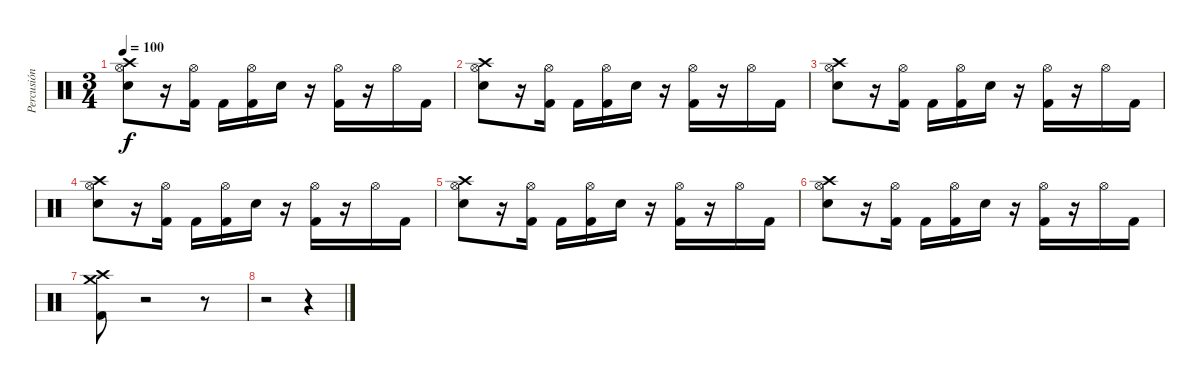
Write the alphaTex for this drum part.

\track ("Percusión" "Percusión") {instrument percussion}
\staff {score}
\articulation defaults
\ts (3 4)
\tempo 100
\clef neutral
\ks c
("Crash high (hit)" "Hi-Hat (open)" "Electric Snare (hit)").8{dy f} r.16 ("Hi-Hat (open)" "Kick (hit) 2").16 "Kick (hit) 2".16 ("Hi-Hat (open)" "Kick (hit) 2").16 "Electric Snare (hit)".16 r.16 ("Hi-Hat (open)" "Kick (hit) 2").16 r.16 "Hi-Hat (open)".16 "Kick (hit) 2".16 |
("Crash high (hit)" "Hi-Hat (open)" "Electric Snare (hit)").8 r.16 ("Hi-Hat (open)" "Kick (hit) 2").16 "Kick (hit) 2".16 ("Hi-Hat (open)" "Kick (hit) 2").16 "Electric Snare (hit)".16 r.16 ("Hi-Hat (open)" "Kick (hit) 2").16 r.16 "Hi-Hat (open)".16 "Kick (hit) 2".16 |
("Crash high (hit)" "Hi-Hat (open)" "Electric Snare (hit)").8 r.16 ("Hi-Hat (open)" "Kick (hit) 2").16 "Kick (hit) 2".16 ("Hi-Hat (open)" "Kick (hit) 2").16 "Electric Snare (hit)".16 r.16 ("Hi-Hat (open)" "Kick (hit) 2").16 r.16 "Hi-Hat (open)".16 "Kick (hit) 2".16 |
("Crash high (hit)" "Hi-Hat (open)" "Electric Snare (hit)").8 r.16 ("Hi-Hat (open)" "Kick (hit) 2").16 "Kick (hit) 2".16 ("Hi-Hat (open)" "Kick (hit) 2").16 "Electric Snare (hit)".16 r.16 ("Hi-Hat (open)" "Kick (hit) 2").16 r.16 "Hi-Hat (open)".16 "Kick (hit) 2".16 |
("Crash high (hit)" "Hi-Hat (open)" "Electric Snare (hit)").8 r.16 ("Hi-Hat (open)" "Kick (hit) 2").16 "Kick (hit) 2".16 ("Hi-Hat (open)" "Kick (hit) 2").16 "Electric Snare (hit)".16 r.16 ("Hi-Hat (open)" "Kick (hit) 2").16 r.16 "Hi-Hat (open)".16 "Kick (hit) 2".16 |
("Crash high (hit)" "Hi-Hat (open)" "Electric Snare (hit)").8 r.16 ("Hi-Hat (open)" "Kick (hit) 2").16 "Kick (hit) 2".16 ("Hi-Hat (open)" "Kick (hit) 2").16 "Electric Snare (hit)".16 r.16 ("Hi-Hat (open)" "Kick (hit) 2").16 r.16 "Hi-Hat (open)".16 "Kick (hit) 2".16 |
("Crash high (hit)" "Crash medium (hit)" "Kick (hit) 2").8 r.2 r.8 |
r.2 r.4
